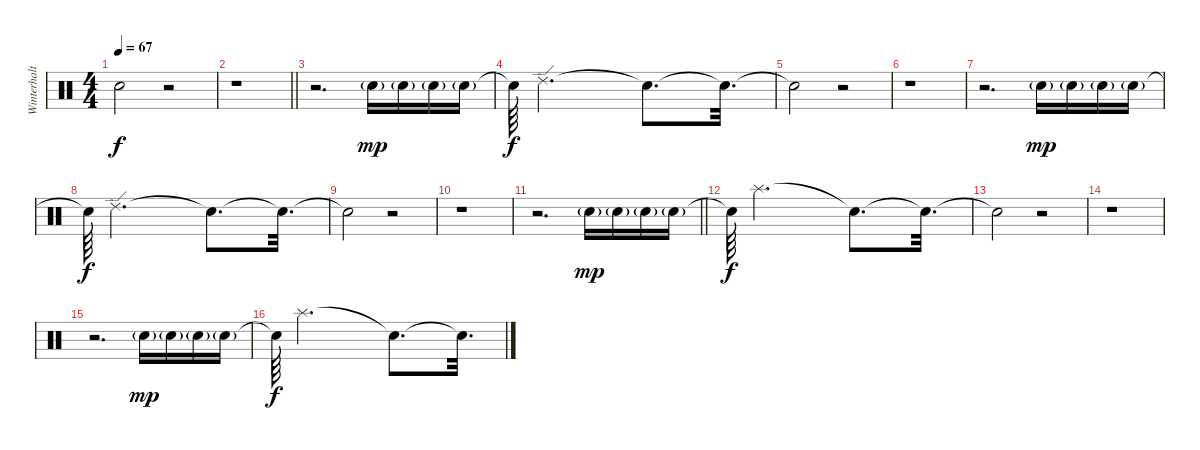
\track ("Winterhalten" "Winterhalt") {instrument percussion}
\staff {score}
\articulation defaults
\ts (4 4)
\tempo 67
\clef neutral
\ks c "Snare (hit)"{t}.2{dy f}
r.2 |
\barLineRight lightlight
r.1 |
\section ("" "")
r.2{d} "Snare (hit) 2"{g}.16{dy mp} "Snare (hit) 2"{g}.16 "Snare (hit) 2"{g}.16 "Snare (hit) 2"{g}.16 |
"Snare (hit)"{t}.64{dy f} "Ride (edge) 2".2{d} "Snare (hit)"{t}.8{d} "Snare (hit)"{t}.32{d} |
"Snare (hit)"{t}.2 r.2 |
r.1 |
r.2{d} "Snare (hit) 2"{g}.16{dy mp} "Snare (hit) 2"{g}.16 "Snare (hit) 2"{g}.16 "Snare (hit) 2"{g}.16 |
"Snare (hit)"{t}.64{dy f} "Ride (edge) 2".2{d} "Snare (hit)"{t}.8{d} "Snare (hit)"{t}.32{d} |
"Snare (hit)"{t}.2 r.2 |
r.1 |
\barLineRight lightlight
r.2{d} "Snare (hit) 2"{g}.16{dy mp} "Snare (hit) 2"{g}.16 "Snare (hit) 2"{g}.16 "Snare (hit) 2"{g}.16 |
\section ("" "")
"Snare (hit)"{t}.64{dy f} "Splash (hit)".2{d} "Snare (hit)"{t}.8{d} "Snare (hit)"{t}.32{d} |
"Snare (hit)"{t}.2 r.2 |
r.1 |
r.2{d} "Snare (hit) 2"{g}.16{dy mp} "Snare (hit) 2"{g}.16 "Snare (hit) 2"{g}.16 "Snare (hit) 2"{g}.16 |
"Snare (hit)"{t}.64{dy f} "Splash (hit)".2{d} "Snare (hit)"{t}.8{d} "Snare (hit)"{t}.32{d}
